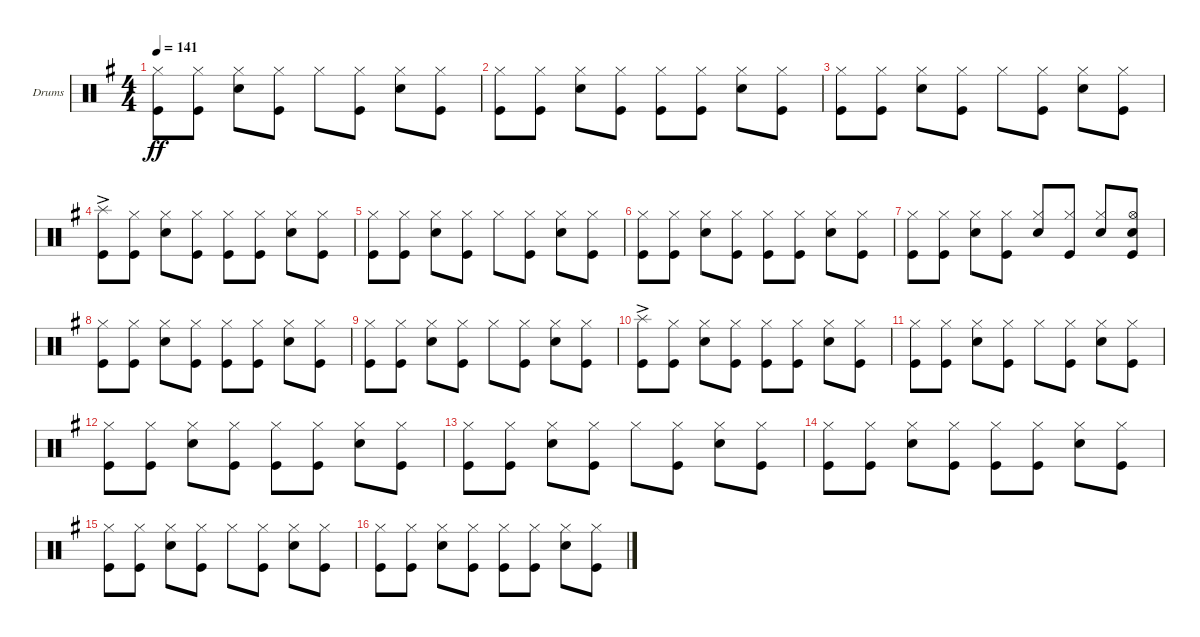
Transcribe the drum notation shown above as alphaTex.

\defaultSystemsLayout 4
\bracketExtendMode groupsimilarinstruments
\firstSystemTrackNameOrientation horizontal
\otherSystemsTrackNameOrientation horizontal
\track ("Drumkit" "Drums") {instrument percussion}
\staff {score}
\articulation defaults
\ts (4 4)
\tempo 141
\clef neutral
\scale
0.333333
\ks g
("Kick (hit)" "Hi-Hat (closed)").8{dy ff} ("Kick (hit)" "Hi-Hat (closed)").8 ("Snare (hit) 2" "Hi-Hat (closed)").8 ("Hi-Hat (closed)" "Kick (hit)").8 "Hi-Hat (closed)".8 ("Kick (hit)" "Hi-Hat (closed)").8 ("Snare (hit) 2" "Hi-Hat (closed)").8 ("Kick (hit)" "Hi-Hat (closed)").8 |
\scale
0.333333 ("Kick (hit)" "Hi-Hat (closed)").8 ("Kick (hit)" "Hi-Hat (closed)").8 ("Snare (hit) 2" "Hi-Hat (closed)").8 ("Kick (hit)" "Hi-Hat (closed)").8 ("Kick (hit)" "Hi-Hat (closed)").8 ("Kick (hit)" "Hi-Hat (closed)").8 ("Snare (hit) 2" "Hi-Hat (closed)").8 ("Kick (hit)" "Hi-Hat (closed)").8 |
\scale
0.333333 ("Kick (hit)" "Hi-Hat (closed)").8 ("Kick (hit)" "Hi-Hat (closed)").8 ("Snare (hit) 2" "Hi-Hat (closed)").8 ("Kick (hit)" "Hi-Hat (closed)").8 "Hi-Hat (closed)".8 ("Kick (hit)" "Hi-Hat (closed)").8 ("Snare (hit) 2" "Hi-Hat (closed)").8 ("Kick (hit)" "Hi-Hat (closed)").8 |
\scale
0.333333 ("Kick (hit)" "Splash (hit)"{ac}).8 ("Kick (hit)" "Hi-Hat (closed)").8 ("Snare (hit) 2" "Hi-Hat (closed)").8 ("Kick (hit)" "Hi-Hat (closed)").8 ("Kick (hit)" "Hi-Hat (closed)").8 ("Kick (hit)" "Hi-Hat (closed)").8 ("Snare (hit) 2" "Hi-Hat (closed)").8 ("Kick (hit)" "Hi-Hat (closed)").8 |
\scale
0.333333 ("Kick (hit)" "Hi-Hat (closed)").8 ("Kick (hit)" "Hi-Hat (closed)").8 ("Snare (hit) 2" "Hi-Hat (closed)").8 ("Hi-Hat (closed)" "Kick (hit)").8 "Hi-Hat (closed)".8 ("Kick (hit)" "Hi-Hat (closed)").8 ("Snare (hit) 2" "Hi-Hat (closed)").8 ("Kick (hit)" "Hi-Hat (closed)").8 |
\scale
0.333333 ("Kick (hit)" "Hi-Hat (closed)").8 ("Kick (hit)" "Hi-Hat (closed)").8 ("Snare (hit) 2" "Hi-Hat (closed)").8 ("Kick (hit)" "Hi-Hat (closed)").8 ("Kick (hit)" "Hi-Hat (closed)").8 ("Kick (hit)" "Hi-Hat (closed)").8 ("Snare (hit) 2" "Hi-Hat (closed)").8 ("Kick (hit)" "Hi-Hat (closed)").8 |
\scale
0.333333 ("Kick (hit)" "Hi-Hat (closed)").8 ("Kick (hit)" "Hi-Hat (closed)").8 ("Snare (hit) 2" "Hi-Hat (closed)").8 ("Hi-Hat (closed)" "Kick (hit)").8 ("Hi-Hat (closed)" "Snare (hit) 2").8 ("Kick (hit)" "Hi-Hat (closed)").8 ("Snare (hit) 2" "Hi-Hat (closed)").8{beam invert} ("Kick (hit)" "Hi-Hat (open)" "Snare (hit) 2").8 |
\scale
0.333333 ("Kick (hit)" "Hi-Hat (closed)").8 ("Kick (hit)" "Hi-Hat (closed)").8 ("Snare (hit) 2" "Hi-Hat (closed)").8 ("Kick (hit)" "Hi-Hat (closed)").8 ("Kick (hit)" "Hi-Hat (closed)").8 ("Kick (hit)" "Hi-Hat (closed)").8 ("Snare (hit) 2" "Hi-Hat (closed)").8 ("Kick (hit)" "Hi-Hat (closed)").8 |
\scale
0.333333 ("Kick (hit)" "Hi-Hat (closed)").8 ("Kick (hit)" "Hi-Hat (closed)").8 ("Snare (hit) 2" "Hi-Hat (closed)").8 ("Hi-Hat (closed)" "Kick (hit)").8 "Hi-Hat (closed)".8 ("Kick (hit)" "Hi-Hat (closed)").8 ("Snare (hit) 2" "Hi-Hat (closed)").8 ("Kick (hit)" "Hi-Hat (closed)").8 |
\scale
0.333333 ("Kick (hit)" "Splash (hit)"{ac}).8 ("Kick (hit)" "Hi-Hat (closed)").8 ("Snare (hit) 2" "Hi-Hat (closed)").8 ("Kick (hit)" "Hi-Hat (closed)").8 ("Kick (hit)" "Hi-Hat (closed)").8 ("Kick (hit)" "Hi-Hat (closed)").8 ("Snare (hit) 2" "Hi-Hat (closed)").8 ("Kick (hit)" "Hi-Hat (closed)").8 |
\scale
0.333333 ("Kick (hit)" "Hi-Hat (closed)").8 ("Kick (hit)" "Hi-Hat (closed)").8 ("Snare (hit) 2" "Hi-Hat (closed)").8 ("Kick (hit)" "Hi-Hat (closed)").8 "Hi-Hat (closed)".8 ("Kick (hit)" "Hi-Hat (closed)").8 ("Snare (hit) 2" "Hi-Hat (closed)").8 ("Kick (hit)" "Hi-Hat (closed)").8 |
\scale
0.333333 ("Kick (hit)" "Hi-Hat (closed)").8 ("Kick (hit)" "Hi-Hat (closed)").8 ("Snare (hit) 2" "Hi-Hat (closed)").8 ("Kick (hit)" "Hi-Hat (closed)").8 ("Kick (hit)" "Hi-Hat (closed)").8 ("Kick (hit)" "Hi-Hat (closed)").8 ("Snare (hit) 2" "Hi-Hat (closed)").8 ("Kick (hit)" "Hi-Hat (closed)").8 |
\scale
0.333333 ("Kick (hit)" "Hi-Hat (closed)").8 ("Kick (hit)" "Hi-Hat (closed)").8 ("Snare (hit) 2" "Hi-Hat (closed)").8 ("Hi-Hat (closed)" "Kick (hit)").8 "Hi-Hat (closed)".8 ("Kick (hit)" "Hi-Hat (closed)").8 ("Snare (hit) 2" "Hi-Hat (closed)").8 ("Kick (hit)" "Hi-Hat (closed)").8 |
\scale
0.333333 ("Kick (hit)" "Hi-Hat (closed)").8 ("Kick (hit)" "Hi-Hat (closed)").8 ("Snare (hit) 2" "Hi-Hat (closed)").8 ("Kick (hit)" "Hi-Hat (closed)").8 ("Kick (hit)" "Hi-Hat (closed)").8 ("Kick (hit)" "Hi-Hat (closed)").8 ("Snare (hit) 2" "Hi-Hat (closed)").8 ("Kick (hit)" "Hi-Hat (closed)").8 |
\scale
0.333333 ("Kick (hit)" "Hi-Hat (closed)").8 ("Kick (hit)" "Hi-Hat (closed)").8 ("Snare (hit) 2" "Hi-Hat (closed)").8 ("Hi-Hat (closed)" "Kick (hit)").8 "Hi-Hat (closed)".8 ("Kick (hit)" "Hi-Hat (closed)").8 ("Snare (hit) 2" "Hi-Hat (closed)").8 ("Kick (hit)" "Hi-Hat (closed)").8 |
\scale
0.333333 ("Kick (hit)" "Hi-Hat (closed)").8 ("Kick (hit)" "Hi-Hat (closed)").8 ("Snare (hit) 2" "Hi-Hat (closed)").8 ("Kick (hit)" "Hi-Hat (closed)").8 ("Kick (hit)" "Hi-Hat (closed)").8 ("Kick (hit)" "Hi-Hat (closed)").8 ("Snare (hit) 2" "Hi-Hat (closed)").8 ("Kick (hit)" "Hi-Hat (closed)").8
